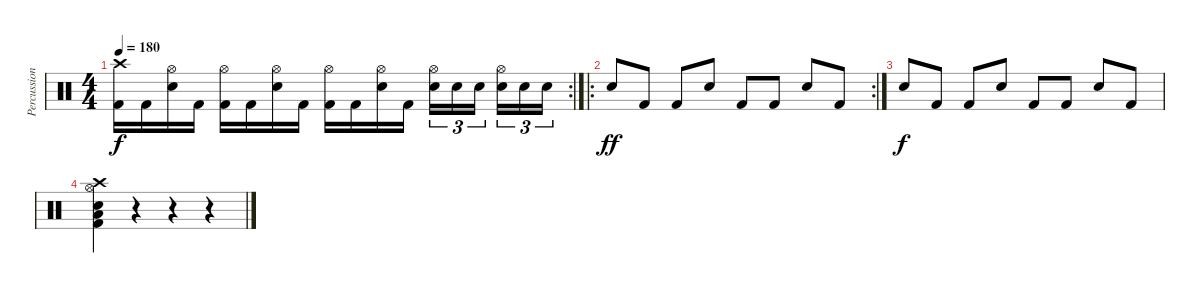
\track ("Percussion" "Percussion") {instrument percussion}
\staff {score}
\articulation defaults
\rc 2
\ts (4 4)
\tempo 180
\clef neutral
\ks c
("Crash high (hit)" "Kick (hit) 2").16{dy f} "Kick (hit) 2".16 ("Hi-Hat (open)" "Electric Snare (hit)").16 "Kick (hit) 2".16 ("Hi-Hat (open)" "Kick (hit) 2").16 "Kick (hit) 2".16 ("Hi-Hat (open)" "Electric Snare (hit)").16 "Kick (hit) 2".16 ("Hi-Hat (open)" "Kick (hit) 2").16 "Kick (hit) 2".16 ("Hi-Hat (open)" "Electric Snare (hit)").16 "Kick (hit) 2".16 ("Hi-Hat (open)" "Electric Snare (hit)").16{tu (3 2)} "Electric Snare (hit)".16{tu (3 2)} "Electric Snare (hit)".16{tu (3 2)} ("Hi-Hat (open)" "Electric Snare (hit)").16{tu (3 2)} "Electric Snare (hit)".16{tu (3 2)} "Electric Snare (hit)".16{tu (3 2)} |
\ro
\rc 2 "Electric Snare (hit)".8{dy ff} "Kick (hit) 2".8 "Kick (hit) 2".8 "Electric Snare (hit)".8 "Kick (hit) 2".8 "Kick (hit) 2".8 "Electric Snare (hit)".8 "Kick (hit) 2".8
|
"Electric Snare (hit)".8{dy f} "Kick (hit) 2".8 "Kick (hit) 2".8 "Electric Snare (hit)".8 "Kick (hit) 2".8 "Kick (hit) 2".8 "Electric Snare (hit)".8 "Kick (hit) 2".8 |
("Crash high (hit)" "Hi-Hat (open)" "Kick (hit) 2" "Electric Snare (hit)" "Low Floor Tom (hit)").4 r.4 r.4 r.4
